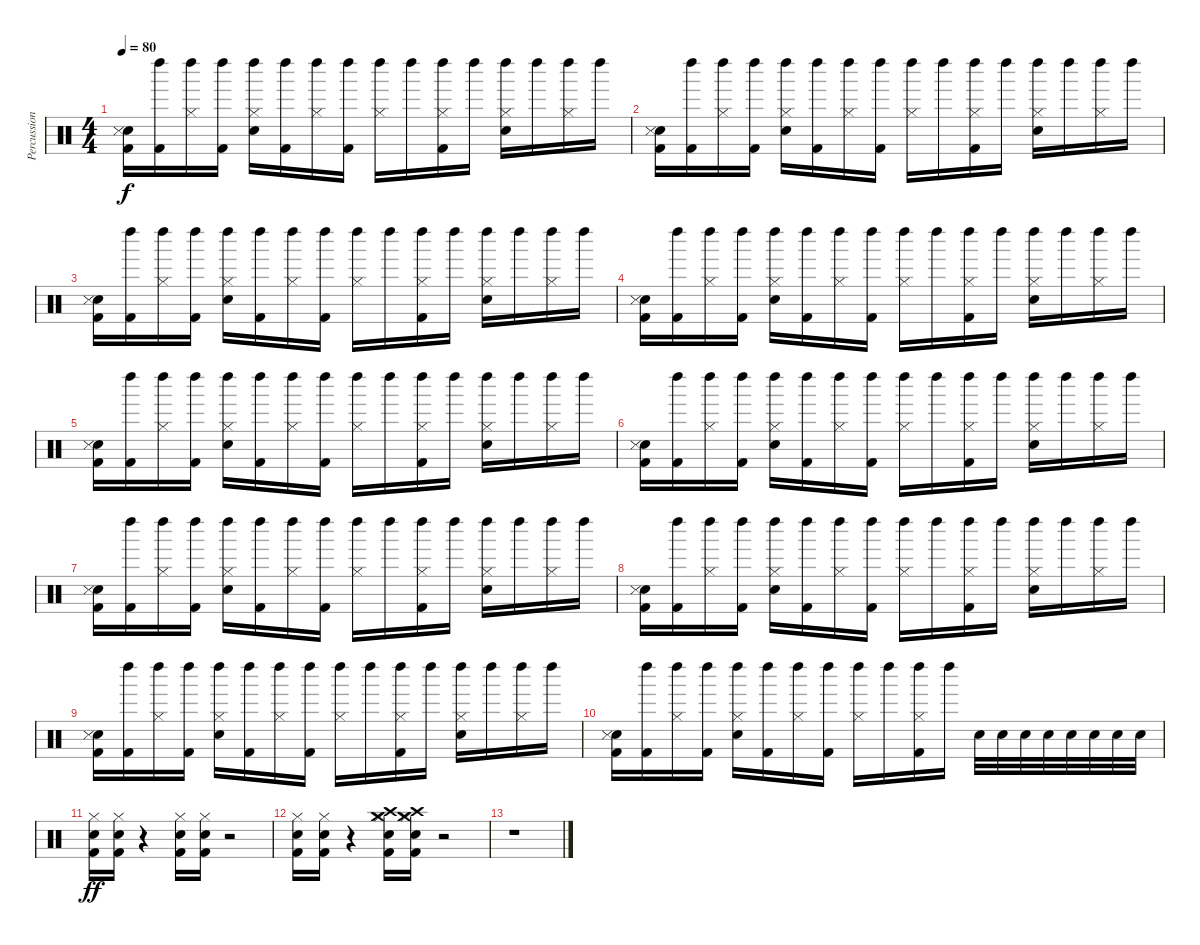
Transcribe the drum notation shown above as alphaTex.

\track ("Percussions" "Percussion") {instrument percussion}
\staff {score}
\articulation defaults
\ts (4 4)
\tempo 80
\clef neutral
\ks c
("Electric Snare (hit)" "Snare (side stick) 3" "Kick (hit) 2").16{dy f} ("Kick (hit) 2" "Left Maraca (hit)").16 ("Hi-Hat (closed)" "Left Maraca (hit)").16 ("Kick (hit) 2" "Left Maraca (hit)").16 ("Hi-Hat (closed)" "Electric Snare (hit)" "Left Maraca (hit)").16 ("Kick (hit) 2" "Left Maraca (hit)").16 ("Hi-Hat (closed)" "Left Maraca (hit)").16 ("Kick (hit) 2" "Left Maraca (hit)").16 ("Hi-Hat (closed)" "Left Maraca (hit)").16 "Left Maraca (hit)".16 ("Hi-Hat (closed)" "Kick (hit) 2" "Left Maraca (hit)").16 "Left Maraca (hit)".16 ("Hi-Hat (closed)" "Electric Snare (hit)" "Left Maraca (hit)").16 "Left Maraca (hit)".16 ("Hi-Hat (closed)" "Left Maraca (hit)").16 "Left Maraca (hit)".16 |
("Electric Snare (hit)" "Snare (side stick) 3" "Kick (hit) 2").16 ("Kick (hit) 2" "Left Maraca (hit)").16 ("Hi-Hat (closed)" "Left Maraca (hit)").16 ("Kick (hit) 2" "Left Maraca (hit)").16 ("Hi-Hat (closed)" "Electric Snare (hit)" "Left Maraca (hit)").16 ("Kick (hit) 2" "Left Maraca (hit)").16 ("Hi-Hat (closed)" "Left Maraca (hit)").16 ("Kick (hit) 2" "Left Maraca (hit)").16 ("Hi-Hat (closed)" "Left Maraca (hit)").16 "Left Maraca (hit)".16 ("Hi-Hat (closed)" "Kick (hit) 2" "Left Maraca (hit)").16 "Left Maraca (hit)".16 ("Hi-Hat (closed)" "Electric Snare (hit)" "Left Maraca (hit)").16 "Left Maraca (hit)".16 ("Hi-Hat (closed)" "Left Maraca (hit)").16 "Left Maraca (hit)".16 |
("Electric Snare (hit)" "Snare (side stick) 3" "Kick (hit) 2").16 ("Kick (hit) 2" "Left Maraca (hit)").16 ("Hi-Hat (closed)" "Left Maraca (hit)").16 ("Kick (hit) 2" "Left Maraca (hit)").16 ("Hi-Hat (closed)" "Electric Snare (hit)" "Left Maraca (hit)").16 ("Kick (hit) 2" "Left Maraca (hit)").16 ("Hi-Hat (closed)" "Left Maraca (hit)").16 ("Kick (hit) 2" "Left Maraca (hit)").16 ("Hi-Hat (closed)" "Left Maraca (hit)").16 "Left Maraca (hit)".16 ("Hi-Hat (closed)" "Kick (hit) 2" "Left Maraca (hit)").16 "Left Maraca (hit)".16 ("Hi-Hat (closed)" "Electric Snare (hit)" "Left Maraca (hit)").16 "Left Maraca (hit)".16 ("Hi-Hat (closed)" "Left Maraca (hit)").16 "Left Maraca (hit)".16 |
("Electric Snare (hit)" "Snare (side stick) 3" "Kick (hit) 2").16 ("Kick (hit) 2" "Left Maraca (hit)").16 ("Hi-Hat (closed)" "Left Maraca (hit)").16 ("Kick (hit) 2" "Left Maraca (hit)").16 ("Hi-Hat (closed)" "Electric Snare (hit)" "Left Maraca (hit)").16 ("Kick (hit) 2" "Left Maraca (hit)").16 ("Hi-Hat (closed)" "Left Maraca (hit)").16 ("Kick (hit) 2" "Left Maraca (hit)").16 ("Hi-Hat (closed)" "Left Maraca (hit)").16 "Left Maraca (hit)".16 ("Hi-Hat (closed)" "Kick (hit) 2" "Left Maraca (hit)").16 "Left Maraca (hit)".16 ("Hi-Hat (closed)" "Electric Snare (hit)" "Left Maraca (hit)").16 "Left Maraca (hit)".16 ("Hi-Hat (closed)" "Left Maraca (hit)").16 "Left Maraca (hit)".16 |
("Electric Snare (hit)" "Snare (side stick) 3" "Kick (hit) 2").16 ("Kick (hit) 2" "Left Maraca (hit)").16 ("Hi-Hat (closed)" "Left Maraca (hit)").16 ("Kick (hit) 2" "Left Maraca (hit)").16 ("Hi-Hat (closed)" "Electric Snare (hit)" "Left Maraca (hit)").16 ("Kick (hit) 2" "Left Maraca (hit)").16 ("Hi-Hat (closed)" "Left Maraca (hit)").16 ("Kick (hit) 2" "Left Maraca (hit)").16 ("Hi-Hat (closed)" "Left Maraca (hit)").16 "Left Maraca (hit)".16 ("Hi-Hat (closed)" "Kick (hit) 2" "Left Maraca (hit)").16 "Left Maraca (hit)".16 ("Hi-Hat (closed)" "Electric Snare (hit)" "Left Maraca (hit)").16 "Left Maraca (hit)".16 ("Hi-Hat (closed)" "Left Maraca (hit)").16 "Left Maraca (hit)".16 |
("Electric Snare (hit)" "Snare (side stick) 3" "Kick (hit) 2").16 ("Kick (hit) 2" "Left Maraca (hit)").16 ("Hi-Hat (closed)" "Left Maraca (hit)").16 ("Kick (hit) 2" "Left Maraca (hit)").16 ("Hi-Hat (closed)" "Electric Snare (hit)" "Left Maraca (hit)").16 ("Kick (hit) 2" "Left Maraca (hit)").16 ("Hi-Hat (closed)" "Left Maraca (hit)").16 ("Kick (hit) 2" "Left Maraca (hit)").16 ("Hi-Hat (closed)" "Left Maraca (hit)").16 "Left Maraca (hit)".16 ("Hi-Hat (closed)" "Kick (hit) 2" "Left Maraca (hit)").16 "Left Maraca (hit)".16 ("Hi-Hat (closed)" "Electric Snare (hit)" "Left Maraca (hit)").16 "Left Maraca (hit)".16 ("Hi-Hat (closed)" "Left Maraca (hit)").16 "Left Maraca (hit)".16 |
("Electric Snare (hit)" "Snare (side stick) 3" "Kick (hit) 2").16 ("Kick (hit) 2" "Left Maraca (hit)").16 ("Hi-Hat (closed)" "Left Maraca (hit)").16 ("Kick (hit) 2" "Left Maraca (hit)").16 ("Hi-Hat (closed)" "Electric Snare (hit)" "Left Maraca (hit)").16 ("Kick (hit) 2" "Left Maraca (hit)").16 ("Hi-Hat (closed)" "Left Maraca (hit)").16 ("Kick (hit) 2" "Left Maraca (hit)").16 ("Hi-Hat (closed)" "Left Maraca (hit)").16 "Left Maraca (hit)".16 ("Hi-Hat (closed)" "Kick (hit) 2" "Left Maraca (hit)").16 "Left Maraca (hit)".16 ("Hi-Hat (closed)" "Electric Snare (hit)" "Left Maraca (hit)").16 "Left Maraca (hit)".16 ("Hi-Hat (closed)" "Left Maraca (hit)").16 "Left Maraca (hit)".16 |
("Electric Snare (hit)" "Snare (side stick) 3" "Kick (hit) 2").16 ("Kick (hit) 2" "Left Maraca (hit)").16 ("Hi-Hat (closed)" "Left Maraca (hit)").16 ("Kick (hit) 2" "Left Maraca (hit)").16 ("Hi-Hat (closed)" "Electric Snare (hit)" "Left Maraca (hit)").16 ("Kick (hit) 2" "Left Maraca (hit)").16 ("Hi-Hat (closed)" "Left Maraca (hit)").16 ("Kick (hit) 2" "Left Maraca (hit)").16 ("Hi-Hat (closed)" "Left Maraca (hit)").16 "Left Maraca (hit)".16 ("Hi-Hat (closed)" "Kick (hit) 2" "Left Maraca (hit)").16 "Left Maraca (hit)".16 ("Hi-Hat (closed)" "Electric Snare (hit)" "Left Maraca (hit)").16 "Left Maraca (hit)".16 ("Hi-Hat (closed)" "Left Maraca (hit)").16 "Left Maraca (hit)".16 |
("Electric Snare (hit)" "Snare (side stick) 3" "Kick (hit) 2").16 ("Kick (hit) 2" "Left Maraca (hit)").16 ("Hi-Hat (closed)" "Left Maraca (hit)").16 ("Kick (hit) 2" "Left Maraca (hit)").16 ("Hi-Hat (closed)" "Electric Snare (hit)" "Left Maraca (hit)").16 ("Kick (hit) 2" "Left Maraca (hit)").16 ("Hi-Hat (closed)" "Left Maraca (hit)").16 ("Kick (hit) 2" "Left Maraca (hit)").16 ("Hi-Hat (closed)" "Left Maraca (hit)").16 "Left Maraca (hit)".16 ("Hi-Hat (closed)" "Kick (hit) 2" "Left Maraca (hit)").16 "Left Maraca (hit)".16 ("Hi-Hat (closed)" "Electric Snare (hit)" "Left Maraca (hit)").16 "Left Maraca (hit)".16 ("Hi-Hat (closed)" "Left Maraca (hit)").16 "Left Maraca (hit)".16 |
("Electric Snare (hit)" "Snare (side stick) 3" "Kick (hit) 2").16 ("Kick (hit) 2" "Left Maraca (hit)").16 ("Hi-Hat (closed)" "Left Maraca (hit)").16 ("Kick (hit) 2" "Left Maraca (hit)").16 ("Hi-Hat (closed)" "Electric Snare (hit)" "Left Maraca (hit)").16 ("Kick (hit) 2" "Left Maraca (hit)").16 ("Hi-Hat (closed)" "Left Maraca (hit)").16 ("Kick (hit) 2" "Left Maraca (hit)").16 ("Hi-Hat (closed)" "Left Maraca (hit)").16 "Left Maraca (hit)".16 ("Hi-Hat (closed)" "Kick (hit) 2" "Left Maraca (hit)").16 "Left Maraca (hit)".16 "Electric Snare (hit)".32 "Snare (hit) 2".32 "Electric Snare (hit)".32 "Snare (hit) 2".32 "Electric Snare (hit)".32 "Snare (hit) 2".32 "Electric Snare (hit)".32 "Electric Snare (hit)".32 |
("Hi-Hat (closed)" "Electric Snare (hit)" "Kick (hit) 2").16{dy ff} ("Hi-Hat (closed)" "Electric Snare (hit)" "Kick (hit) 2").16 r.4 ("Hi-Hat (closed)" "Electric Snare (hit)" "Kick (hit) 2").16 ("Hi-Hat (closed)" "Electric Snare (hit)" "Kick (hit) 2").16 r.2 |
("Hi-Hat (closed)" "Electric Snare (hit)" "Kick (hit) 2").16 ("Hi-Hat (closed)" "Electric Snare (hit)" "Kick (hit) 2").16 r.4 ("Hi-Hat (closed)" "Crash high (hit)" "Crash medium (hit)" "Electric Snare (hit)" "Kick (hit) 2").16 ("Hi-Hat (closed)" "Crash high (hit)" "Crash medium (hit)" "Electric Snare (hit)" "Kick (hit) 2").16 r.2 |
r.1
